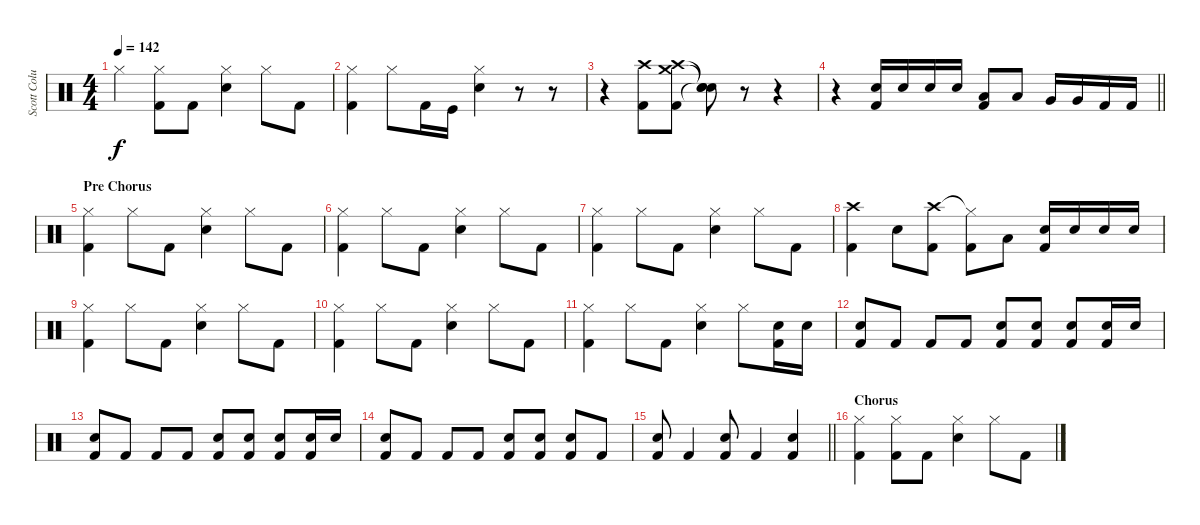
\track ("Scott Columbus" "Scott Colu") {instrument percussion}
\staff {score}
\articulation defaults
\ts (4 4)
\tempo 142
\clef neutral
\ks c "Hi-Hat (closed)"{t}.4{dy f}
("Hi-Hat (closed)" "Kick (hit) 2").8 "Kick (hit) 2".8 ("Hi-Hat (closed)" "Snare (hit) 2").4 "Hi-Hat (closed)".8 "Kick (hit) 2".8 |
("Hi-Hat (closed)" "Kick (hit) 2").4 "Hi-Hat (closed)".8 "Kick (hit) 2".16 "Kick (hit)".16 ("Hi-Hat (closed)" "Snare (hit) 2").4 r.8 r.8 |
r.4 ("Crash high (hit)" "Kick (hit) 2").8 ("Crash high (hit)" "Crash medium (hit)" "Kick (hit) 2").8 ("Snare (hit)"{t} "Snare (hit)"{t} "Snare (hit)"{t}).8 r.8 r.4 |
\barLineRight lightlight
r.4 ("Snare (hit) 2" "Kick (hit) 2").16 "Snare (hit) 2".16 "Snare (hit) 2".16 "Snare (hit) 2".16 ("Low Tom (hit)" "Kick (hit) 2").8 "Low Tom (hit)".8 "Very Low Tom (hit)".16 "Very Low Tom (hit)".16 "Kick (hit) 2".16 "Kick (hit) 2".16 |
\section ("" "Pre Chorus")
("Hi-Hat (closed)" "Kick (hit) 2").4 "Hi-Hat (closed)".8 "Kick (hit) 2".8 ("Hi-Hat (closed)" "Snare (hit) 2").4 "Hi-Hat (closed)".8 "Kick (hit) 2".8 |
("Hi-Hat (closed)" "Kick (hit) 2").4 "Hi-Hat (closed)".8 "Kick (hit) 2".8 ("Hi-Hat (closed)" "Snare (hit) 2").4 "Hi-Hat (closed)".8 "Kick (hit) 2".8 |
("Hi-Hat (closed)" "Kick (hit) 2").4 "Hi-Hat (closed)".8 "Kick (hit) 2".8 ("Hi-Hat (closed)" "Snare (hit) 2").4 "Hi-Hat (closed)".8 "Kick (hit) 2".8 |
("Crash high (hit)" "Kick (hit) 2").4 "Snare (hit) 2".8 ("Crash high (hit)" "Kick (hit) 2").8 ("Hi-Hat (closed)"{t} "Kick (hit) 2").8 "Low Tom (hit)".8 ("Snare (hit) 2" "Kick (hit) 2").16 "Snare (hit) 2".16 "Snare (hit) 2".16 "Snare (hit) 2".16 |
("Hi-Hat (closed)" "Kick (hit) 2").4 "Hi-Hat (closed)".8 "Kick (hit) 2".8 ("Hi-Hat (closed)" "Snare (hit) 2").4 "Hi-Hat (closed)".8 "Kick (hit) 2".8 |
("Hi-Hat (closed)" "Kick (hit) 2").4 "Hi-Hat (closed)".8 "Kick (hit) 2".8 ("Hi-Hat (closed)" "Snare (hit) 2").4 "Hi-Hat (closed)".8 "Kick (hit) 2".8 |
("Hi-Hat (closed)" "Kick (hit) 2").4 "Hi-Hat (closed)".8 "Kick (hit) 2".8 ("Hi-Hat (closed)" "Snare (hit) 2").4 "Hi-Hat (closed)".8 ("Snare (hit) 2" "Kick (hit) 2").16 "Snare (hit) 2".16 |
("Snare (hit) 2" "Kick (hit) 2").8 "Kick (hit) 2".8 "Kick (hit) 2".8 "Kick (hit) 2".8 ("Snare (hit) 2" "Kick (hit) 2").8 ("Snare (hit) 2" "Kick (hit) 2").8 ("Snare (hit) 2" "Kick (hit) 2").8 ("Snare (hit) 2" "Kick (hit) 2").16 "Snare (hit) 2".16 |
("Snare (hit) 2" "Kick (hit) 2").8 "Kick (hit) 2".8 "Kick (hit) 2".8 "Kick (hit) 2".8 ("Snare (hit) 2" "Kick (hit) 2").8 ("Snare (hit) 2" "Kick (hit) 2").8 ("Snare (hit) 2" "Kick (hit) 2").8 ("Snare (hit) 2" "Kick (hit) 2").16 "Snare (hit) 2".16 |
("Snare (hit) 2" "Kick (hit) 2").8 "Kick (hit) 2".8 "Kick (hit) 2".8 "Kick (hit) 2".8 ("Snare (hit) 2" "Kick (hit) 2").8 ("Snare (hit) 2" "Kick (hit) 2").8 ("Snare (hit) 2" "Kick (hit) 2").8 "Kick (hit) 2".8 |
\barLineRight lightlight
("Snare (hit) 2" "Kick (hit) 2").8 "Kick (hit) 2".4 ("Snare (hit) 2" "Kick (hit) 2").8 "Kick (hit) 2".4 ("Snare (hit) 2" "Kick (hit) 2").4 |
\section ("" "Chorus")
("Hi-Hat (closed)" "Kick (hit) 2").4 ("Hi-Hat (closed)" "Kick (hit) 2").8 "Kick (hit) 2".8 ("Hi-Hat (closed)" "Snare (hit) 2").4 "Hi-Hat (closed)".8 "Kick (hit) 2".8
